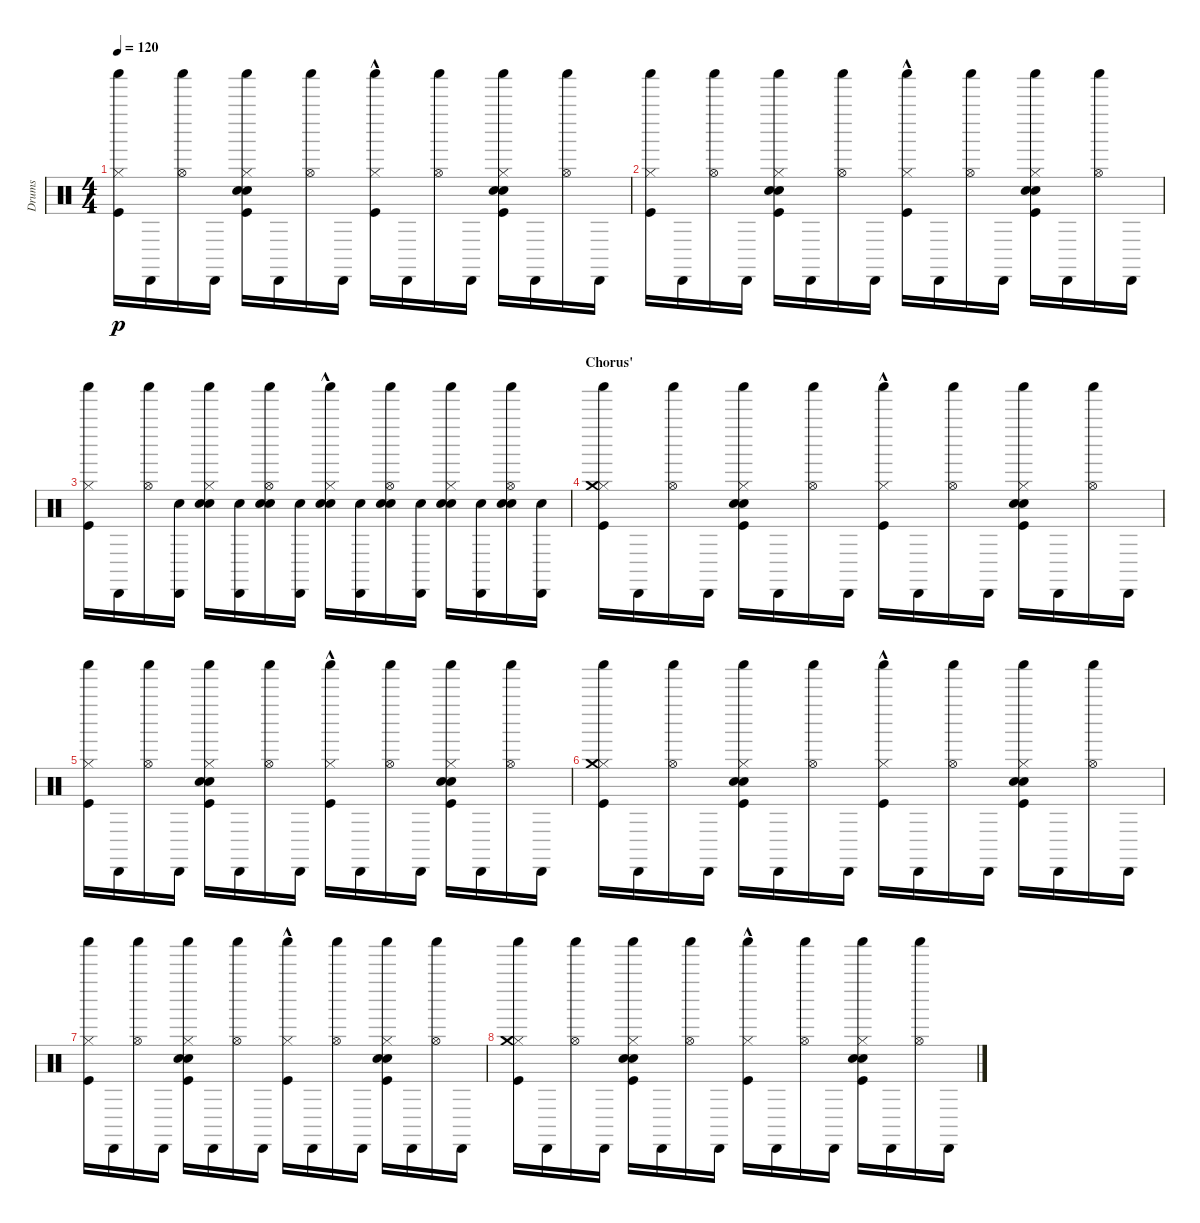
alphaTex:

\track ("Drums" "Drums") {instrument percussion}
\staff {score}
\articulation defaults
\ts (4 4)
\tempo 120
\clef neutral
\ks c
("Kick (hit)" "Hi-Hat (closed)" "Shaker (hit)").16{dy p} "Cabasa (hit)".16 ("Hi-Hat (open)" "Shaker (hit)").16 "Cabasa (hit)".16 ("Kick (hit)" "Snare (hit) 2" "Electric Snare (hit)" "Hi-Hat (closed)" "Shaker (hit)").16 "Cabasa (hit)".16 ("Hi-Hat (open)" "Shaker (hit)").16 "Cabasa (hit)".16 ("Kick (hit)" "Hi-Hat (closed)" "Shaker (hit)"{hac}).16 "Cabasa (hit)".16 ("Hi-Hat (open)" "Shaker (hit)").16 "Cabasa (hit)".16 ("Kick (hit)" "Snare (hit) 2" "Electric Snare (hit)" "Hi-Hat (closed)" "Shaker (hit)").16 "Cabasa (hit)".16 ("Hi-Hat (open)" "Shaker (hit)").16 "Cabasa (hit)".16 |
("Kick (hit)" "Hi-Hat (closed)" "Shaker (hit)").16 "Cabasa (hit)".16 ("Hi-Hat (open)" "Shaker (hit)").16 "Cabasa (hit)".16 ("Kick (hit)" "Snare (hit) 2" "Electric Snare (hit)" "Hi-Hat (closed)" "Shaker (hit)").16 "Cabasa (hit)".16 ("Hi-Hat (open)" "Shaker (hit)").16 "Cabasa (hit)".16 ("Kick (hit)" "Hi-Hat (closed)" "Shaker (hit)"{hac}).16 "Cabasa (hit)".16 ("Hi-Hat (open)" "Shaker (hit)").16 "Cabasa (hit)".16 ("Kick (hit)" "Snare (hit) 2" "Electric Snare (hit)" "Hi-Hat (closed)" "Shaker (hit)").16 "Cabasa (hit)".16 ("Hi-Hat (open)" "Shaker (hit)").16 "Cabasa (hit)".16 |
("Kick (hit)" "Hi-Hat (closed)" "Shaker (hit)").16 "Cabasa (hit)".16 ("Hi-Hat (open)" "Shaker (hit)").16 ("Snare (hit) 2" "Cabasa (hit)").16 ("Snare (hit) 2" "Electric Snare (hit)" "Hi-Hat (closed)" "Shaker (hit)").16 ("Snare (hit) 2" "Cabasa (hit)").16 ("Snare (hit) 2" "Electric Snare (hit)" "Hi-Hat (open)" "Shaker (hit)").16 ("Snare (hit) 2" "Cabasa (hit)").16 ("Snare (hit) 2" "Electric Snare (hit)" "Hi-Hat (closed)" "Shaker (hit)"{hac}).16 ("Snare (hit) 2" "Cabasa (hit)").16 ("Snare (hit) 2" "Electric Snare (hit)" "Hi-Hat (open)" "Shaker (hit)").16 ("Snare (hit) 2" "Cabasa (hit)").16 ("Snare (hit) 2" "Electric Snare (hit)" "Hi-Hat (closed)" "Shaker (hit)").16 ("Snare (hit) 2" "Cabasa (hit)").16 ("Snare (hit) 2" "Electric Snare (hit)" "Hi-Hat (open)" "Shaker (hit)").16 ("Snare (hit) 2" "Cabasa (hit)").16 |
\section ("" "Chorus'")
("Kick (hit)" "Hi-Hat (closed)" "Crash medium (hit)" "Shaker (hit)").16 "Cabasa (hit)".16 ("Hi-Hat (open)" "Shaker (hit)").16 "Cabasa (hit)".16 ("Kick (hit)" "Snare (hit) 2" "Electric Snare (hit)" "Hi-Hat (closed)" "Shaker (hit)").16 "Cabasa (hit)".16 ("Hi-Hat (open)" "Shaker (hit)").16 "Cabasa (hit)".16 ("Kick (hit)" "Hi-Hat (closed)" "Shaker (hit)"{hac}).16 "Cabasa (hit)".16 ("Hi-Hat (open)" "Shaker (hit)").16 "Cabasa (hit)".16 ("Kick (hit)" "Snare (hit) 2" "Electric Snare (hit)" "Hi-Hat (closed)" "Shaker (hit)").16 "Cabasa (hit)".16 ("Hi-Hat (open)" "Shaker (hit)").16 "Cabasa (hit)".16 |
("Kick (hit)" "Hi-Hat (closed)" "Shaker (hit)").16 "Cabasa (hit)".16 ("Hi-Hat (open)" "Shaker (hit)").16 "Cabasa (hit)".16 ("Kick (hit)" "Snare (hit) 2" "Electric Snare (hit)" "Hi-Hat (closed)" "Shaker (hit)").16 "Cabasa (hit)".16 ("Hi-Hat (open)" "Shaker (hit)").16 "Cabasa (hit)".16 ("Kick (hit)" "Hi-Hat (closed)" "Shaker (hit)"{hac}).16 "Cabasa (hit)".16 ("Hi-Hat (open)" "Shaker (hit)").16 "Cabasa (hit)".16 ("Kick (hit)" "Snare (hit) 2" "Electric Snare (hit)" "Hi-Hat (closed)" "Shaker (hit)").16 "Cabasa (hit)".16 ("Hi-Hat (open)" "Shaker (hit)").16 "Cabasa (hit)".16 |
("Kick (hit)" "Hi-Hat (closed)" "Crash medium (hit)" "Shaker (hit)").16 "Cabasa (hit)".16 ("Hi-Hat (open)" "Shaker (hit)").16 "Cabasa (hit)".16 ("Kick (hit)" "Snare (hit) 2" "Electric Snare (hit)" "Hi-Hat (closed)" "Shaker (hit)").16 "Cabasa (hit)".16 ("Hi-Hat (open)" "Shaker (hit)").16 "Cabasa (hit)".16 ("Kick (hit)" "Hi-Hat (closed)" "Shaker (hit)"{hac}).16 "Cabasa (hit)".16 ("Hi-Hat (open)" "Shaker (hit)").16 "Cabasa (hit)".16 ("Kick (hit)" "Snare (hit) 2" "Electric Snare (hit)" "Hi-Hat (closed)" "Shaker (hit)").16 "Cabasa (hit)".16 ("Hi-Hat (open)" "Shaker (hit)").16 "Cabasa (hit)".16 |
("Kick (hit)" "Hi-Hat (closed)" "Shaker (hit)").16 "Cabasa (hit)".16 ("Hi-Hat (open)" "Shaker (hit)").16 "Cabasa (hit)".16 ("Kick (hit)" "Snare (hit) 2" "Electric Snare (hit)" "Hi-Hat (closed)" "Shaker (hit)").16 "Cabasa (hit)".16 ("Hi-Hat (open)" "Shaker (hit)").16 "Cabasa (hit)".16 ("Kick (hit)" "Hi-Hat (closed)" "Shaker (hit)"{hac}).16 "Cabasa (hit)".16 ("Hi-Hat (open)" "Shaker (hit)").16 "Cabasa (hit)".16 ("Kick (hit)" "Snare (hit) 2" "Electric Snare (hit)" "Hi-Hat (closed)" "Shaker (hit)").16 "Cabasa (hit)".16 ("Hi-Hat (open)" "Shaker (hit)").16 "Cabasa (hit)".16 |
("Kick (hit)" "Hi-Hat (closed)" "Crash medium (hit)" "Shaker (hit)").16 "Cabasa (hit)".16 ("Hi-Hat (open)" "Shaker (hit)").16 "Cabasa (hit)".16 ("Kick (hit)" "Snare (hit) 2" "Electric Snare (hit)" "Hi-Hat (closed)" "Shaker (hit)").16 "Cabasa (hit)".16 ("Hi-Hat (open)" "Shaker (hit)").16 "Cabasa (hit)".16 ("Kick (hit)" "Hi-Hat (closed)" "Shaker (hit)"{hac}).16 "Cabasa (hit)".16 ("Hi-Hat (open)" "Shaker (hit)").16 "Cabasa (hit)".16 ("Kick (hit)" "Snare (hit) 2" "Electric Snare (hit)" "Hi-Hat (closed)" "Shaker (hit)").16 "Cabasa (hit)".16 ("Hi-Hat (open)" "Shaker (hit)").16 "Cabasa (hit)".16
